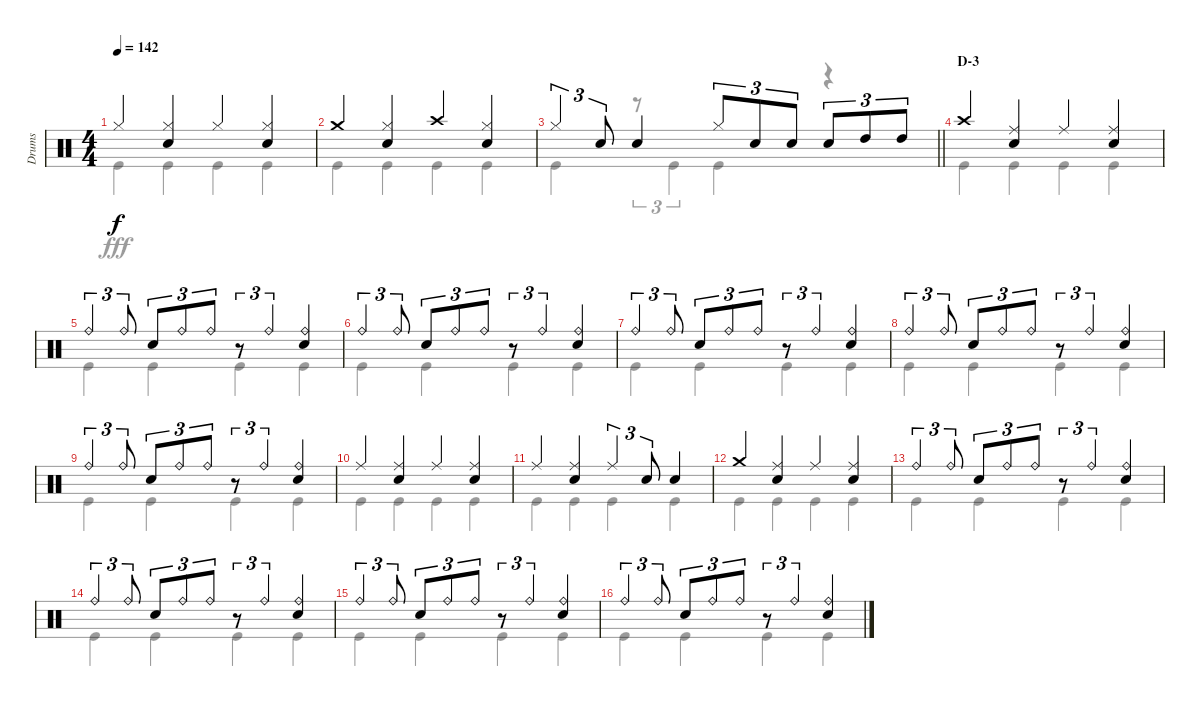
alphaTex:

\track ("Drums" "Drums") {instrument percussion}
\staff {score}
\articulation defaults
\voice
\ts (4 4)
\tempo 142
\clef neutral
\ks c "Hi-Hat (closed)".4{dy f}
("Hi-Hat (closed)" "Snare (hit) 2").4 "Hi-Hat (closed)".4 ("Hi-Hat (closed)" "Snare (hit) 2").4 |
"Crash medium (hit)".4 ("Hi-Hat (closed)" "Snare (hit) 2").4 "Crash high (hit)".4 ("Hi-Hat (closed)" "Snare (hit) 2").4 |
\barLineRight lightlight "Hi-Hat (closed)".4{tu (3 2)} "Snare (hit) 2".8{tu (3 2)} "Snare (hit) 2".4 "Hi-Hat (closed)".8{tu (3 2)} "Snare (hit) 2".8{tu (3 2)} "Snare (hit) 2".8{tu (3 2)} "Snare (hit) 2".8{tu (3 2)} "High Tom (hit)".8{tu (3 2)} "High Tom (hit)".8{tu (3 2)}
|
\section ("" "D-3")
"Crash high (hit)".4 ("Ride (middle)" "Snare (hit) 2").4 "Ride (middle)".4 ("Ride (middle)" "Snare (hit) 2").4 |
"Ride (bell)".4{tu (3 2)} "Ride (bell)".8{tu (3 2)} "Snare (hit) 2".8{tu (3 2)} "Ride (bell)".8{tu (3 2)} "Ride (bell)".8{tu (3 2)} r.8{tu (3 2)} "Ride (bell)".4{tu (3 2)} ("Ride (bell)" "Snare (hit) 2").4 |
"Ride (bell)".4{tu (3 2)} "Ride (bell)".8{tu (3 2)} "Snare (hit) 2".8{tu (3 2)} "Ride (bell)".8{tu (3 2)} "Ride (bell)".8{tu (3 2)} r.8{tu (3 2)} "Ride (bell)".4{tu (3 2)} ("Ride (bell)" "Snare (hit) 2").4 |
"Ride (bell)".4{tu (3 2)} "Ride (bell)".8{tu (3 2)} "Snare (hit) 2".8{tu (3 2)} "Ride (bell)".8{tu (3 2)} "Ride (bell)".8{tu (3 2)} r.8{tu (3 2)} "Ride (bell)".4{tu (3 2)} ("Ride (bell)" "Snare (hit) 2").4 |
"Ride (bell)".4{tu (3 2)} "Ride (bell)".8{tu (3 2)} "Snare (hit) 2".8{tu (3 2)} "Ride (bell)".8{tu (3 2)} "Ride (bell)".8{tu (3 2)} r.8{tu (3 2)} "Ride (bell)".4{tu (3 2)} ("Ride (bell)" "Snare (hit) 2").4 |
"Ride (bell)".4{tu (3 2)} "Ride (bell)".8{tu (3 2)} "Snare (hit) 2".8{tu (3 2)} "Ride (bell)".8{tu (3 2)} "Ride (bell)".8{tu (3 2)} r.8{tu (3 2)} "Ride (bell)".4{tu (3 2)} ("Ride (bell)" "Snare (hit) 2").4 |
"Ride (middle)".4 ("Ride (middle)" "Snare (hit) 2").4 "Ride (middle)".4 ("Ride (middle)" "Snare (hit) 2").4 |
"Ride (middle)".4 ("Ride (middle)" "Snare (hit) 2").4 "Ride (middle)".4{tu (3 2)} "Snare (hit) 2".8{tu (3 2)} "Snare (hit) 2".4 |
"Crash medium (hit)".4 ("Ride (middle)" "Snare (hit) 2").4 "Ride (middle)".4 ("Ride (middle)" "Snare (hit) 2").4 |
"Ride (bell)".4{tu (3 2)} "Ride (bell)".8{tu (3 2)} "Snare (hit) 2".8{tu (3 2)} "Ride (bell)".8{tu (3 2)} "Ride (bell)".8{tu (3 2)} r.8{tu (3 2)} "Ride (bell)".4{tu (3 2)} ("Ride (bell)" "Snare (hit) 2").4 |
"Ride (bell)".4{tu (3 2)} "Ride (bell)".8{tu (3 2)} "Snare (hit) 2".8{tu (3 2)} "Ride (bell)".8{tu (3 2)} "Ride (bell)".8{tu (3 2)} r.8{tu (3 2)} "Ride (bell)".4{tu (3 2)} ("Ride (bell)" "Snare (hit) 2").4 |
"Ride (bell)".4{tu (3 2)} "Ride (bell)".8{tu (3 2)} "Snare (hit) 2".8{tu (3 2)} "Ride (bell)".8{tu (3 2)} "Ride (bell)".8{tu (3 2)} r.8{tu (3 2)} "Ride (bell)".4{tu (3 2)} ("Ride (bell)" "Snare (hit) 2").4 |
"Ride (bell)".4{tu (3 2)} "Ride (bell)".8{tu (3 2)} "Snare (hit) 2".8{tu (3 2)} "Ride (bell)".8{tu (3 2)} "Ride (bell)".8{tu (3 2)} r.8{tu (3 2)} "Ride (bell)".4{tu (3 2)} ("Ride (bell)" "Snare (hit) 2").4
\voice
\clef neutral
\ottava regular
\simile none
\ks c "Kick (hit)".4{dy fff} "Kick (hit)".4 "Kick (hit)".4 "Kick (hit)".4
|
"Kick (hit)".4 "Kick (hit)".4 "Kick (hit)".4 "Kick (hit)".4 |
\barLineRight lightlight "Kick (hit)".4
r.8{tu (3 2)} "Kick (hit)".4{tu (3 2)} "Kick (hit)".4 r.4 |
"Kick (hit)".4 "Kick (hit)".4 "Kick (hit)".4 "Kick (hit)".4 |
"Kick (hit)".4 "Kick (hit)".4 "Kick (hit)".4 "Kick (hit)".4 |
"Kick (hit)".4 "Kick (hit)".4 "Kick (hit)".4 "Kick (hit)".4 |
"Kick (hit)".4 "Kick (hit)".4 "Kick (hit)".4 "Kick (hit)".4 |
"Kick (hit)".4 "Kick (hit)".4 "Kick (hit)".4 "Kick (hit)".4 |
"Kick (hit)".4 "Kick (hit)".4 "Kick (hit)".4 "Kick (hit)".4 |
"Kick (hit)".4 "Kick (hit)".4 "Kick (hit)".4 "Kick (hit)".4 |
"Kick (hit)".4 "Kick (hit)".4 "Kick (hit)".4 "Kick (hit)".4 |
"Kick (hit)".4 "Kick (hit)".4 "Kick (hit)".4 "Kick (hit)".4 |
"Kick (hit)".4 "Kick (hit)".4 "Kick (hit)".4 "Kick (hit)".4 |
"Kick (hit)".4 "Kick (hit)".4 "Kick (hit)".4 "Kick (hit)".4 |
"Kick (hit)".4 "Kick (hit)".4 "Kick (hit)".4 "Kick (hit)".4 |
"Kick (hit)".4 "Kick (hit)".4 "Kick (hit)".4 "Kick (hit)".4
